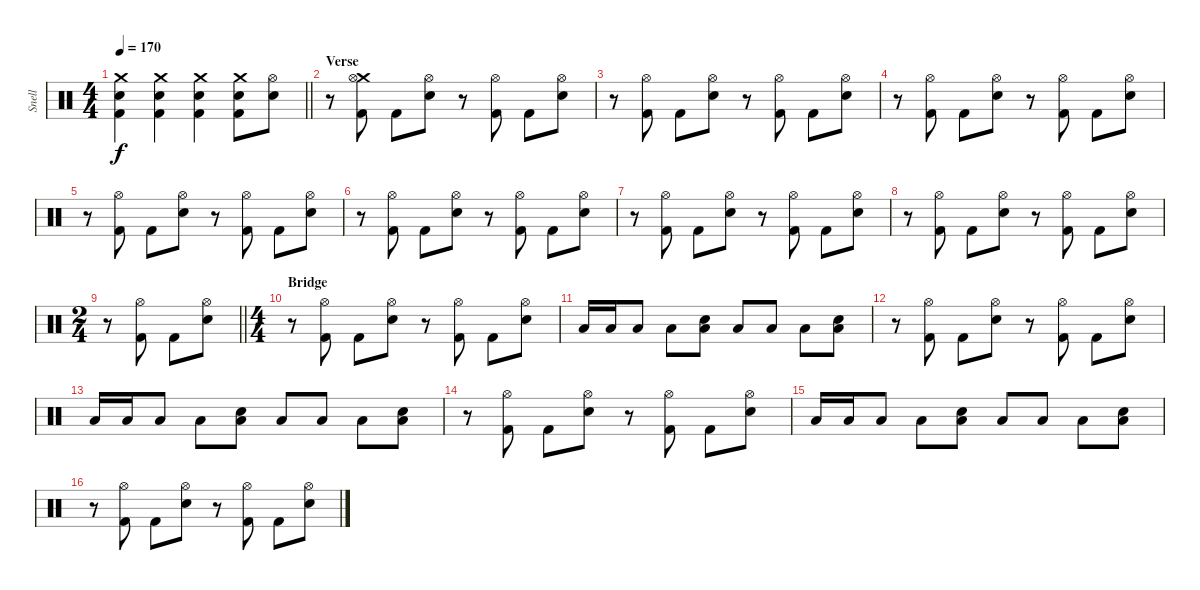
\track ("Snell" "Snell") {instrument percussion}
\staff {score}
\articulation defaults
\ts (4 4)
\tempo 170
\clef neutral
\barLineRight lightlight
\ks c
("Crash medium (hit)" "Electric Snare (hit)" "Kick (hit) 2").4{dy f} ("Crash medium (hit)" "Electric Snare (hit)" "Kick (hit) 2").4 ("Crash medium (hit)" "Electric Snare (hit)" "Kick (hit) 2").4 ("Crash medium (hit)" "Electric Snare (hit)" "Kick (hit) 2").8 ("Hi-Hat (open)" "Electric Snare (hit)").8 |
\section ("" "Verse")
r.8 ("Crash medium (hit)" "Hi-Hat (open)" "Kick (hit) 2").8 "Kick (hit) 2".8 ("Hi-Hat (open)" "Electric Snare (hit)").8 r.8 ("Hi-Hat (open)" "Kick (hit) 2").8 "Kick (hit) 2".8 ("Hi-Hat (open)" "Electric Snare (hit)").8 |
r.8 ("Hi-Hat (open)" "Kick (hit) 2").8 "Kick (hit) 2".8 ("Hi-Hat (open)" "Electric Snare (hit)").8 r.8 ("Hi-Hat (open)" "Kick (hit) 2").8 "Kick (hit) 2".8 ("Hi-Hat (open)" "Electric Snare (hit)").8 |
r.8 ("Hi-Hat (open)" "Kick (hit) 2").8 "Kick (hit) 2".8 ("Hi-Hat (open)" "Electric Snare (hit)").8 r.8 ("Hi-Hat (open)" "Kick (hit) 2").8 "Kick (hit) 2".8 ("Hi-Hat (open)" "Electric Snare (hit)").8 |
r.8 ("Hi-Hat (open)" "Kick (hit) 2").8 "Kick (hit) 2".8 ("Hi-Hat (open)" "Electric Snare (hit)").8 r.8 ("Hi-Hat (open)" "Kick (hit) 2").8 "Kick (hit) 2".8 ("Hi-Hat (open)" "Electric Snare (hit)").8 |
r.8 ("Hi-Hat (open)" "Kick (hit) 2").8 "Kick (hit) 2".8 ("Hi-Hat (open)" "Electric Snare (hit)").8 r.8 ("Hi-Hat (open)" "Kick (hit) 2").8 "Kick (hit) 2".8 ("Hi-Hat (open)" "Electric Snare (hit)").8 |
r.8 ("Hi-Hat (open)" "Kick (hit) 2").8 "Kick (hit) 2".8 ("Hi-Hat (open)" "Electric Snare (hit)").8 r.8 ("Hi-Hat (open)" "Kick (hit) 2").8 "Kick (hit) 2".8 ("Hi-Hat (open)" "Electric Snare (hit)").8 |
r.8 ("Hi-Hat (open)" "Kick (hit) 2").8 "Kick (hit) 2".8 ("Hi-Hat (open)" "Electric Snare (hit)").8 r.8 ("Hi-Hat (open)" "Kick (hit) 2").8 "Kick (hit) 2".8 ("Hi-Hat (open)" "Electric Snare (hit)").8 |
\ts (2 4)
\barLineRight lightlight
r.8 ("Hi-Hat (open)" "Kick (hit) 2").8 "Kick (hit) 2".8 ("Hi-Hat (open)" "Electric Snare (hit)").8 |
\ts (4 4)
\section ("" "Bridge")
r.8 ("Hi-Hat (open)" "Kick (hit) 2").8 "Kick (hit) 2".8 ("Hi-Hat (open)" "Electric Snare (hit)").8 r.8 ("Hi-Hat (open)" "Kick (hit) 2").8 "Kick (hit) 2".8 ("Hi-Hat (open)" "Electric Snare (hit)").8 |
"Low Tom (hit)".16 "Low Tom (hit)".16 "Low Tom (hit)".8 "Low Tom (hit)".8 ("Electric Snare (hit)" "Low Tom (hit)").8 "Low Tom (hit)".8 "Low Tom (hit)".8 "Low Tom (hit)".8 ("Electric Snare (hit)" "Low Tom (hit)").8 |
r.8 ("Hi-Hat (open)" "Kick (hit) 2").8 "Kick (hit) 2".8 ("Hi-Hat (open)" "Electric Snare (hit)").8 r.8 ("Hi-Hat (open)" "Kick (hit) 2").8 "Kick (hit) 2".8 ("Hi-Hat (open)" "Electric Snare (hit)").8 |
"Low Tom (hit)".16 "Low Tom (hit)".16 "Low Tom (hit)".8 "Low Tom (hit)".8 ("Electric Snare (hit)" "Low Tom (hit)").8 "Low Tom (hit)".8 "Low Tom (hit)".8 "Low Tom (hit)".8 ("Electric Snare (hit)" "Low Tom (hit)").8 |
r.8 ("Hi-Hat (open)" "Kick (hit) 2").8 "Kick (hit) 2".8 ("Hi-Hat (open)" "Electric Snare (hit)").8 r.8 ("Hi-Hat (open)" "Kick (hit) 2").8 "Kick (hit) 2".8 ("Hi-Hat (open)" "Electric Snare (hit)").8 |
"Low Tom (hit)".16 "Low Tom (hit)".16 "Low Tom (hit)".8 "Low Tom (hit)".8 ("Electric Snare (hit)" "Low Tom (hit)").8 "Low Tom (hit)".8 "Low Tom (hit)".8 "Low Tom (hit)".8 ("Electric Snare (hit)" "Low Tom (hit)").8 |
r.8 ("Hi-Hat (open)" "Kick (hit) 2").8 "Kick (hit) 2".8 ("Hi-Hat (open)" "Electric Snare (hit)").8 r.8 ("Hi-Hat (open)" "Kick (hit) 2").8 "Kick (hit) 2".8 ("Hi-Hat (open)" "Electric Snare (hit)").8
